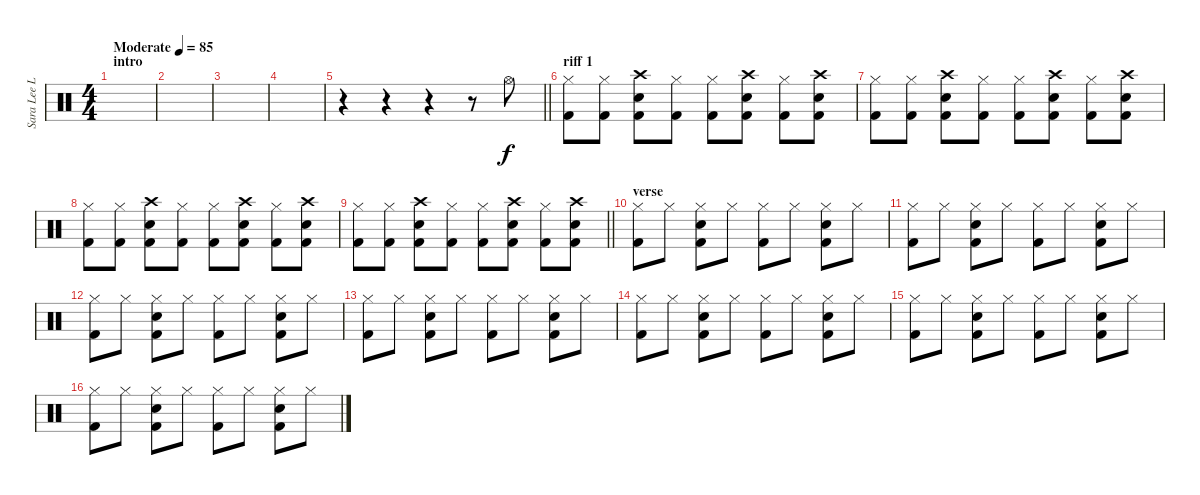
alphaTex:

\track ("Sara Lee Lucas" "Sara Lee L") {instrument percussion}
\staff {score}
\articulation defaults
\ts (4 4)
\section ("" "intro")
\tempo (85 "Moderate")
\clef neutral
\ks c
|
|
|
|
\barLineRight lightlight
r.4 r.4 r.4 r.8 "Hi-Hat (open)".8 |
\section ("" "riff 1")
("Hi-Hat (closed)" "Kick (hit) 2").8 ("Hi-Hat (closed)" "Kick (hit) 2").8 ("Crash high (hit)" "Snare (hit) 2" "Kick (hit) 2").8 ("Hi-Hat (closed)" "Kick (hit) 2").8 ("Hi-Hat (closed)" "Kick (hit) 2").8 ("Crash high (hit)" "Snare (hit) 2" "Kick (hit) 2").8 ("Hi-Hat (closed)" "Kick (hit) 2").8 ("Crash high (hit)" "Snare (hit) 2" "Kick (hit) 2").8 |
("Hi-Hat (closed)" "Kick (hit) 2").8 ("Hi-Hat (closed)" "Kick (hit) 2").8 ("Crash high (hit)" "Snare (hit) 2" "Kick (hit) 2").8 ("Hi-Hat (closed)" "Kick (hit) 2").8 ("Hi-Hat (closed)" "Kick (hit) 2").8 ("Crash high (hit)" "Snare (hit) 2" "Kick (hit) 2").8 ("Hi-Hat (closed)" "Kick (hit) 2").8 ("Crash high (hit)" "Snare (hit) 2" "Kick (hit) 2").8 |
("Hi-Hat (closed)" "Kick (hit) 2").8 ("Hi-Hat (closed)" "Kick (hit) 2").8 ("Crash high (hit)" "Snare (hit) 2" "Kick (hit) 2").8 ("Hi-Hat (closed)" "Kick (hit) 2").8 ("Hi-Hat (closed)" "Kick (hit) 2").8 ("Crash high (hit)" "Snare (hit) 2" "Kick (hit) 2").8 ("Hi-Hat (closed)" "Kick (hit) 2").8 ("Crash high (hit)" "Snare (hit) 2" "Kick (hit) 2").8 |
\barLineRight lightlight
("Hi-Hat (closed)" "Kick (hit) 2").8 ("Hi-Hat (closed)" "Kick (hit) 2").8 ("Crash high (hit)" "Snare (hit) 2" "Kick (hit) 2").8 ("Hi-Hat (closed)" "Kick (hit) 2").8 ("Hi-Hat (closed)" "Kick (hit) 2").8 ("Crash high (hit)" "Snare (hit) 2" "Kick (hit) 2").8 ("Hi-Hat (closed)" "Kick (hit) 2").8 ("Crash high (hit)" "Snare (hit) 2" "Kick (hit) 2").8 |
\section ("" "verse")
("Hi-Hat (closed)" "Kick (hit) 2").8 "Hi-Hat (closed)".8 ("Hi-Hat (closed)" "Snare (hit) 2" "Kick (hit) 2").8 "Hi-Hat (closed)".8 ("Hi-Hat (closed)" "Kick (hit) 2").8 "Hi-Hat (closed)".8 ("Hi-Hat (closed)" "Snare (hit) 2" "Kick (hit) 2").8 "Hi-Hat (closed)".8 |
("Hi-Hat (closed)" "Kick (hit) 2").8 "Hi-Hat (closed)".8 ("Hi-Hat (closed)" "Snare (hit) 2" "Kick (hit) 2").8 "Hi-Hat (closed)".8 ("Hi-Hat (closed)" "Kick (hit) 2").8 "Hi-Hat (closed)".8 ("Hi-Hat (closed)" "Snare (hit) 2" "Kick (hit) 2").8 "Hi-Hat (closed)".8 |
("Hi-Hat (closed)" "Kick (hit) 2").8 "Hi-Hat (closed)".8 ("Hi-Hat (closed)" "Snare (hit) 2" "Kick (hit) 2").8 "Hi-Hat (closed)".8 ("Hi-Hat (closed)" "Kick (hit) 2").8 "Hi-Hat (closed)".8 ("Hi-Hat (closed)" "Snare (hit) 2" "Kick (hit) 2").8 "Hi-Hat (closed)".8 |
("Hi-Hat (closed)" "Kick (hit) 2").8 "Hi-Hat (closed)".8 ("Hi-Hat (closed)" "Snare (hit) 2" "Kick (hit) 2").8 "Hi-Hat (closed)".8 ("Hi-Hat (closed)" "Kick (hit) 2").8 "Hi-Hat (closed)".8 ("Hi-Hat (closed)" "Snare (hit) 2" "Kick (hit) 2").8 "Hi-Hat (closed)".8 |
("Hi-Hat (closed)" "Kick (hit) 2").8 "Hi-Hat (closed)".8 ("Hi-Hat (closed)" "Snare (hit) 2" "Kick (hit) 2").8 "Hi-Hat (closed)".8 ("Hi-Hat (closed)" "Kick (hit) 2").8 "Hi-Hat (closed)".8 ("Hi-Hat (closed)" "Snare (hit) 2" "Kick (hit) 2").8 "Hi-Hat (closed)".8 |
("Hi-Hat (closed)" "Kick (hit) 2").8 "Hi-Hat (closed)".8 ("Hi-Hat (closed)" "Snare (hit) 2" "Kick (hit) 2").8 "Hi-Hat (closed)".8 ("Hi-Hat (closed)" "Kick (hit) 2").8 "Hi-Hat (closed)".8 ("Hi-Hat (closed)" "Snare (hit) 2" "Kick (hit) 2").8 "Hi-Hat (closed)".8 |
("Hi-Hat (closed)" "Kick (hit) 2").8 "Hi-Hat (closed)".8 ("Hi-Hat (closed)" "Snare (hit) 2" "Kick (hit) 2").8 "Hi-Hat (closed)".8 ("Hi-Hat (closed)" "Kick (hit) 2").8 "Hi-Hat (closed)".8 ("Hi-Hat (closed)" "Snare (hit) 2" "Kick (hit) 2").8 "Hi-Hat (closed)".8
